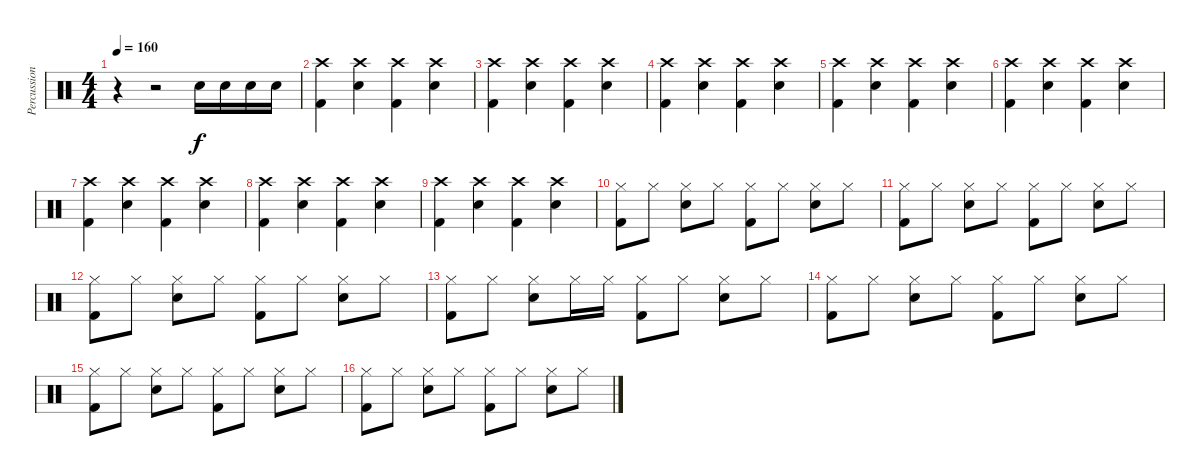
\track ("Percussions" "Percussion") {instrument percussion}
\staff {score}
\articulation defaults
\ts (4 4)
\tempo 160
\clef neutral
\ks c
r.4{dy f} r.2 "Snare (hit) 2".16 "Snare (hit) 2".16 "Snare (hit) 2".16 "Snare (hit) 2".16 |
("Kick (hit) 2" "Crash high (hit)").4 ("Snare (hit) 2" "Crash high (hit)").4 ("Kick (hit) 2" "Crash high (hit)").4 ("Snare (hit) 2" "Crash high (hit)").4 |
("Kick (hit) 2" "Crash high (hit)").4 ("Snare (hit) 2" "Crash high (hit)").4 ("Kick (hit) 2" "Crash high (hit)").4 ("Snare (hit) 2" "Crash high (hit)").4 |
("Kick (hit) 2" "Crash high (hit)").4 ("Snare (hit) 2" "Crash high (hit)").4 ("Kick (hit) 2" "Crash high (hit)").4 ("Snare (hit) 2" "Crash high (hit)").4 |
("Kick (hit) 2" "Crash high (hit)").4 ("Snare (hit) 2" "Crash high (hit)").4 ("Kick (hit) 2" "Crash high (hit)").4 ("Snare (hit) 2" "Crash high (hit)").4 |
("Kick (hit) 2" "Crash high (hit)").4 ("Snare (hit) 2" "Crash high (hit)").4 ("Kick (hit) 2" "Crash high (hit)").4 ("Snare (hit) 2" "Crash high (hit)").4 |
("Kick (hit) 2" "Crash high (hit)").4 ("Snare (hit) 2" "Crash high (hit)").4 ("Kick (hit) 2" "Crash high (hit)").4 ("Snare (hit) 2" "Crash high (hit)").4 |
("Kick (hit) 2" "Crash high (hit)").4 ("Snare (hit) 2" "Crash high (hit)").4 ("Kick (hit) 2" "Crash high (hit)").4 ("Snare (hit) 2" "Crash high (hit)").4 |
("Kick (hit) 2" "Crash high (hit)").4 ("Snare (hit) 2" "Crash high (hit)").4 ("Kick (hit) 2" "Crash high (hit)").4 ("Snare (hit) 2" "Crash high (hit)").4 |
("Kick (hit) 2" "Hi-Hat (closed)").8 "Hi-Hat (closed)".8 ("Snare (hit) 2" "Hi-Hat (closed)").8 "Hi-Hat (closed)".8 ("Kick (hit) 2" "Hi-Hat (closed)").8 "Hi-Hat (closed)".8 ("Snare (hit) 2" "Hi-Hat (closed)").8 "Hi-Hat (closed)".8 |
("Kick (hit) 2" "Hi-Hat (closed)").8 "Hi-Hat (closed)".8 ("Snare (hit) 2" "Hi-Hat (closed)").8 "Hi-Hat (closed)".8 ("Kick (hit) 2" "Hi-Hat (closed)").8 "Hi-Hat (closed)".8 ("Snare (hit) 2" "Hi-Hat (closed)").8 "Hi-Hat (closed)".8 |
("Kick (hit) 2" "Hi-Hat (closed)").8 "Hi-Hat (closed)".8 ("Snare (hit) 2" "Hi-Hat (closed)").8 "Hi-Hat (closed)".8 ("Kick (hit) 2" "Hi-Hat (closed)").8 "Hi-Hat (closed)".8 ("Snare (hit) 2" "Hi-Hat (closed)").8 "Hi-Hat (closed)".8 |
("Kick (hit) 2" "Hi-Hat (closed)").8 "Hi-Hat (closed)".8 ("Snare (hit) 2" "Hi-Hat (closed)").8 "Hi-Hat (closed)".16 "Hi-Hat (closed)".16 ("Kick (hit) 2" "Hi-Hat (closed)").8 "Hi-Hat (closed)".8 ("Snare (hit) 2" "Hi-Hat (closed)").8 "Hi-Hat (closed)".8 |
("Kick (hit) 2" "Hi-Hat (closed)").8 "Hi-Hat (closed)".8 ("Snare (hit) 2" "Hi-Hat (closed)").8 "Hi-Hat (closed)".8 ("Kick (hit) 2" "Hi-Hat (closed)").8 "Hi-Hat (closed)".8 ("Snare (hit) 2" "Hi-Hat (closed)").8 "Hi-Hat (closed)".8 |
("Kick (hit) 2" "Hi-Hat (closed)").8 "Hi-Hat (closed)".8 ("Snare (hit) 2" "Hi-Hat (closed)").8 "Hi-Hat (closed)".8 ("Kick (hit) 2" "Hi-Hat (closed)").8 "Hi-Hat (closed)".8 ("Snare (hit) 2" "Hi-Hat (closed)").8 "Hi-Hat (closed)".8 |
("Kick (hit) 2" "Hi-Hat (closed)").8 "Hi-Hat (closed)".8 ("Snare (hit) 2" "Hi-Hat (closed)").8 "Hi-Hat (closed)".8 ("Kick (hit) 2" "Hi-Hat (closed)").8 "Hi-Hat (closed)".8 ("Snare (hit) 2" "Hi-Hat (closed)").8 "Hi-Hat (closed)".8
